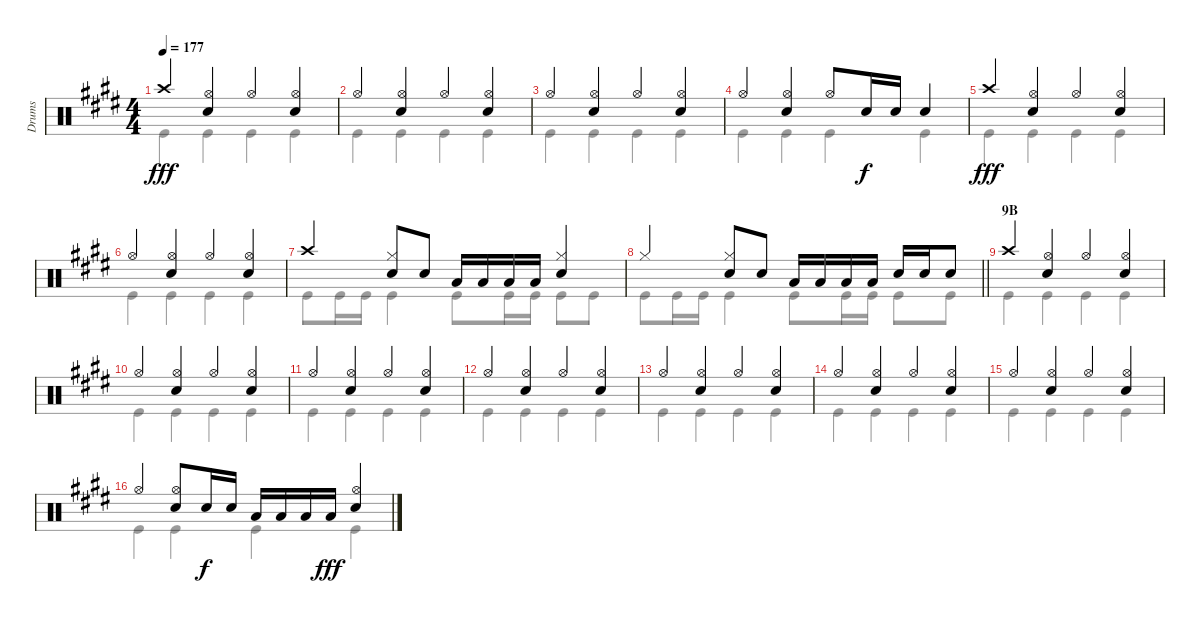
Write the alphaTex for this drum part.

\track ("Drums" "Drums") {instrument percussion}
\staff {score}
\articulation defaults
\voice
\ts (4 4)
\tempo 177
\clef neutral
\ks e "Crash high (hit)".4{dy fff}
("Hi-Hat (open)" "Snare (hit) 2").4 "Hi-Hat (open)".4 ("Hi-Hat (open)" "Snare (hit) 2").4 |
"Hi-Hat (open)".4 ("Hi-Hat (open)" "Snare (hit) 2").4 "Hi-Hat (open)".4 ("Hi-Hat (open)" "Snare (hit) 2").4 |
"Hi-Hat (open)".4 ("Hi-Hat (open)" "Snare (hit) 2").4 "Hi-Hat (open)".4 ("Hi-Hat (open)" "Snare (hit) 2").4 |
"Hi-Hat (open)".4 ("Hi-Hat (open)" "Snare (hit) 2").4 "Hi-Hat (open)".8 "Snare (hit) 2".16{dy f} "Snare (hit) 2".16 "Snare (hit) 2".4 |
"Crash high (hit)".4{dy fff} ("Hi-Hat (open)" "Snare (hit) 2").4 "Hi-Hat (open)".4 ("Hi-Hat (open)" "Snare (hit) 2").4 |
"Hi-Hat (open)".4 ("Hi-Hat (open)" "Snare (hit) 2").4 "Hi-Hat (open)".4 ("Hi-Hat (open)" "Snare (hit) 2").4 |
"Crash high (hit)".4 ("Snare (hit) 2" "Hi-Hat (closed)").8 "Snare (hit) 2".8 "Low Tom (hit)".16 "Low Tom (hit)".16 "Low Tom (hit)".16 "Low Tom (hit)".16 ("Hi-Hat (closed)" "Snare (hit) 2").4 |
\barLineRight lightlight "Hi-Hat (closed)".4
("Snare (hit) 2" "Hi-Hat (closed)").8 "Snare (hit) 2".8 "Low Tom (hit)".16 "Low Tom (hit)".16 "Low Tom (hit)".16 "Low Tom (hit)".16 "Snare (hit) 2".16 "Snare (hit) 2".16 "Snare (hit) 2".8 |
\section ("" "9B")
"Crash high (hit)".4 ("Hi-Hat (open)" "Snare (hit) 2").4 "Hi-Hat (open)".4 ("Hi-Hat (open)" "Snare (hit) 2").4 |
"Hi-Hat (open)".4 ("Hi-Hat (open)" "Snare (hit) 2").4 "Hi-Hat (open)".4 ("Hi-Hat (open)" "Snare (hit) 2").4 |
"Hi-Hat (open)".4 ("Hi-Hat (open)" "Snare (hit) 2").4 "Hi-Hat (open)".4 ("Hi-Hat (open)" "Snare (hit) 2").4 |
"Hi-Hat (open)".4 ("Hi-Hat (open)" "Snare (hit) 2").4 "Hi-Hat (open)".4 ("Hi-Hat (open)" "Snare (hit) 2").4 |
"Hi-Hat (open)".4 ("Hi-Hat (open)" "Snare (hit) 2").4 "Hi-Hat (open)".4 ("Hi-Hat (open)" "Snare (hit) 2").4 |
"Hi-Hat (open)".4 ("Hi-Hat (open)" "Snare (hit) 2").4 "Hi-Hat (open)".4 ("Hi-Hat (open)" "Snare (hit) 2").4 |
"Hi-Hat (open)".4 ("Hi-Hat (open)" "Snare (hit) 2").4 "Hi-Hat (open)".4 ("Hi-Hat (open)" "Snare (hit) 2").4 |
"Hi-Hat (open)".4 ("Hi-Hat (open)" "Snare (hit) 2").8 "Snare (hit) 2".16{dy f} "Snare (hit) 2".16 "Low Tom (hit)".16 "Low Tom (hit)".16 "Low Tom (hit)".16 "Low Tom (hit)".16{dy fff} ("Hi-Hat (open)" "Snare (hit) 2").4
\voice
\clef neutral
\ottava regular
\simile none
\ks e "Kick (hit)".4{dy fff} "Kick (hit)".4 "Kick (hit)".4 "Kick (hit)".4
|
"Kick (hit)".4 "Kick (hit)".4 "Kick (hit)".4 "Kick (hit)".4 |
"Kick (hit)".4 "Kick (hit)".4 "Kick (hit)".4 "Kick (hit)".4 |
"Kick (hit)".4 "Kick (hit)".4 "Kick (hit)".4 "Kick (hit)".4 |
"Kick (hit)".4 "Kick (hit)".4 "Kick (hit)".4 "Kick (hit)".4 |
"Kick (hit)".4 "Kick (hit)".4 "Kick (hit)".4 "Kick (hit)".4 |
"Kick (hit)".8 "Kick (hit)".16 "Kick (hit)".16 "Kick (hit)".4 "Kick (hit)".8 "Kick (hit)".16 "Kick (hit)".16 "Kick (hit)".8 "Kick (hit)".8 |
\barLineRight lightlight "Kick (hit)".8 "Kick (hit)".16 "Kick (hit)".16 "Kick (hit)".4 "Kick (hit)".8 "Kick (hit)".16 "Kick (hit)".16 "Kick (hit)".8 "Kick (hit)".8
|
"Kick (hit)".4 "Kick (hit)".4 "Kick (hit)".4 "Kick (hit)".4 |
"Kick (hit)".4 "Kick (hit)".4 "Kick (hit)".4 "Kick (hit)".4 |
"Kick (hit)".4 "Kick (hit)".4 "Kick (hit)".4 "Kick (hit)".4 |
"Kick (hit)".4 "Kick (hit)".4 "Kick (hit)".4 "Kick (hit)".4 |
"Kick (hit)".4 "Kick (hit)".4 "Kick (hit)".4 "Kick (hit)".4 |
"Kick (hit)".4 "Kick (hit)".4 "Kick (hit)".4 "Kick (hit)".4 |
"Kick (hit)".4 "Kick (hit)".4 "Kick (hit)".4 "Kick (hit)".4 |
"Kick (hit)".4 "Kick (hit)".4 "Kick (hit)".4 "Kick (hit)".4
